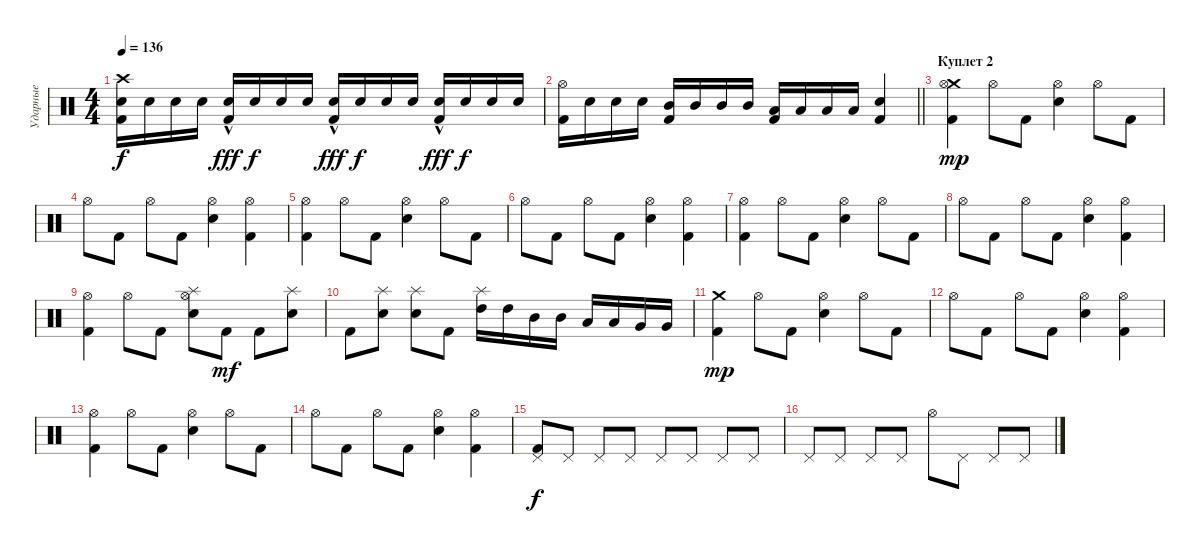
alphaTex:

\track ("Ударные" "Ударные") {instrument percussion}
\staff {score}
\articulation defaults
\ts (4 4)
\tempo 136
\clef neutral
\ks c
("Crash high (hit)" "Kick (hit) 2" "Snare (hit) 2").16{dy f} "Snare (hit) 2".16 "Snare (hit) 2".16 "Snare (hit) 2".16 ("Kick (hit) 2" "Snare (hit) 2"{hac}).16{dy fff} "Snare (hit) 2".16{dy f} "Snare (hit) 2".16 "Snare (hit) 2".16 ("Kick (hit) 2" "Snare (hit) 2"{hac}).16{dy fff} "Snare (hit) 2".16{dy f} "Snare (hit) 2".16 "Snare (hit) 2".16 ("Kick (hit) 2" "Snare (hit) 2"{hac}).16{dy fff} "Snare (hit) 2".16{dy f} "Snare (hit) 2".16 "Snare (hit) 2".16 |
\barLineRight lightlight
("Kick (hit) 2" "Hi-Hat (open)").16 "Snare (hit) 2".16 "Snare (hit) 2".16 "Snare (hit) 2".16 ("Kick (hit) 2" "Mid Tom (hit)").16 "Mid Tom (hit)".16 "Mid Tom (hit)".16 "Mid Tom (hit)".16 ("Kick (hit) 2" "Low Tom (hit)").16 "Low Tom (hit)".16 "Low Tom (hit)".16 "Low Tom (hit)".16 ("Kick (hit) 2" "Snare (hit) 2").4 |
\section ("" "Куплет 2")
("Kick (hit) 2" "Crash medium (hit)" "Hi-Hat (open)").4{dy mp} "Hi-Hat (open)".8 "Kick (hit) 2".8 ("Snare (hit) 2" "Hi-Hat (open)").4 "Hi-Hat (open)".8 "Kick (hit) 2".8 |
"Hi-Hat (open)".8 "Kick (hit) 2".8 "Hi-Hat (open)".8 "Kick (hit) 2".8 ("Snare (hit) 2" "Hi-Hat (open)").4 ("Kick (hit) 2" "Hi-Hat (open)").4 |
("Kick (hit) 2" "Hi-Hat (open)").4 "Hi-Hat (open)".8 "Kick (hit) 2".8 ("Snare (hit) 2" "Hi-Hat (open)").4 "Hi-Hat (open)".8 "Kick (hit) 2".8 |
"Hi-Hat (open)".8 "Kick (hit) 2".8 "Hi-Hat (open)".8 "Kick (hit) 2".8 ("Snare (hit) 2" "Hi-Hat (open)").4 ("Kick (hit) 2" "Hi-Hat (open)").4 |
("Kick (hit) 2" "Hi-Hat (open)").4 "Hi-Hat (open)".8 "Kick (hit) 2".8 ("Snare (hit) 2" "Hi-Hat (open)").4 "Hi-Hat (open)".8 "Kick (hit) 2".8 |
"Hi-Hat (open)".8 "Kick (hit) 2".8 "Hi-Hat (open)".8 "Kick (hit) 2".8 ("Snare (hit) 2" "Hi-Hat (open)").4 ("Kick (hit) 2" "Hi-Hat (open)").4 |
("Kick (hit) 2" "Hi-Hat (open)").4 "Hi-Hat (open)".8 "Kick (hit) 2".8 ("Splash (hit)" "Snare (hit) 2" "Hi-Hat (open)").8 "Kick (hit) 2".8{dy mf} "Kick (hit) 2".8 ("Snare (hit) 2" "Splash (hit)").8 |
"Kick (hit) 2".8 ("Splash (hit)" "Snare (hit) 2").8 ("Splash (hit)" "Snare (hit) 2").8 "Kick (hit) 2".8 ("Splash (hit)" "High Tom (hit)").16 "High Tom (hit)".16 "Mid Tom (hit)".16 "Mid Tom (hit)".16 "Low Tom (hit)".16 "Low Tom (hit)".16 "Very Low Tom (hit)".16 "Very Low Tom (hit)".16 |
("Kick (hit) 2" "Crash medium (hit)").4{dy mp} "Hi-Hat (open)".8 "Kick (hit) 2".8 ("Snare (hit) 2" "Hi-Hat (open)").4 "Hi-Hat (open)".8 "Kick (hit) 2".8 |
"Hi-Hat (open)".8 "Kick (hit) 2".8 "Hi-Hat (open)".8 "Kick (hit) 2".8 ("Snare (hit) 2" "Hi-Hat (open)").4 ("Kick (hit) 2" "Hi-Hat (open)").4 |
("Kick (hit) 2" "Hi-Hat (open)").4 "Hi-Hat (open)".8 "Kick (hit) 2".8 ("Snare (hit) 2" "Hi-Hat (open)").4 "Hi-Hat (open)".8 "Kick (hit) 2".8 |
"Hi-Hat (open)".8 "Kick (hit) 2".8 "Hi-Hat (open)".8 "Kick (hit) 2".8 ("Snare (hit) 2" "Hi-Hat (open)").4 ("Kick (hit) 2" "Hi-Hat (open)").4 |
("Kick (hit) 2" "Pedal Hi-Hat (hit)").8{dy f} "Pedal Hi-Hat (hit)".8 "Pedal Hi-Hat (hit)".8 "Pedal Hi-Hat (hit)".8 "Pedal Hi-Hat (hit)".8 "Pedal Hi-Hat (hit)".8 "Pedal Hi-Hat (hit)".8 "Pedal Hi-Hat (hit)".8 |
"Pedal Hi-Hat (hit)".8 "Pedal Hi-Hat (hit)".8 "Pedal Hi-Hat (hit)".8 "Pedal Hi-Hat (hit)".8 "Hi-Hat (open)".8 "Pedal Hi-Hat (hit)".8 "Pedal Hi-Hat (hit)".8 "Pedal Hi-Hat (hit)".8{volume 10}
